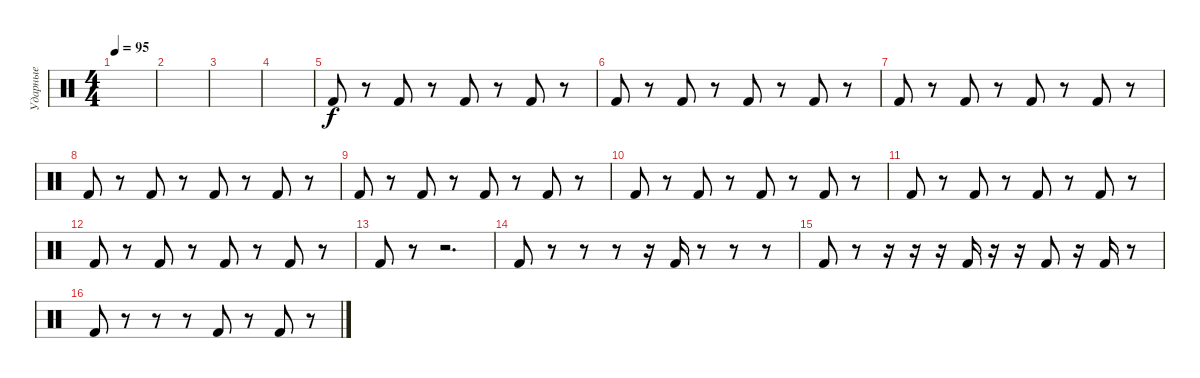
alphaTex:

\track ("Ударные" "Ударные") {instrument percussion}
\staff {score}
\articulation defaults
\ts (4 4)
\tempo 95
\clef neutral
\ks c
|
|
|
|
"Kick (hit) 2".8 r.8 "Kick (hit) 2".8 r.8 "Kick (hit) 2".8 r.8 "Kick (hit) 2".8 r.8 |
"Kick (hit) 2".8 r.8 "Kick (hit) 2".8 r.8 "Kick (hit) 2".8 r.8 "Kick (hit) 2".8 r.8 |
"Kick (hit) 2".8 r.8 "Kick (hit) 2".8 r.8 "Kick (hit) 2".8 r.8 "Kick (hit) 2".8 r.8 |
"Kick (hit) 2".8 r.8 "Kick (hit) 2".8 r.8 "Kick (hit) 2".8 r.8 "Kick (hit) 2".8 r.8 |
"Kick (hit) 2".8 r.8 "Kick (hit) 2".8 r.8 "Kick (hit) 2".8 r.8 "Kick (hit) 2".8 r.8 |
"Kick (hit) 2".8 r.8 "Kick (hit) 2".8 r.8 "Kick (hit) 2".8 r.8 "Kick (hit) 2".8 r.8 |
"Kick (hit) 2".8 r.8 "Kick (hit) 2".8 r.8 "Kick (hit) 2".8 r.8 "Kick (hit) 2".8 r.8 |
"Kick (hit) 2".8 r.8 "Kick (hit) 2".8 r.8 "Kick (hit) 2".8 r.8 "Kick (hit) 2".8 r.8 |
"Kick (hit) 2".8 r.8 r.2{d} |
"Kick (hit) 2".8 r.8 r.8 r.8 r.16 "Kick (hit) 2".16 r.8 r.8 r.8 |
"Kick (hit) 2".8 r.8 r.16 r.16 r.16 "Kick (hit) 2".16 r.16 r.16 "Kick (hit) 2".8 r.16 "Kick (hit) 2".16 r.8 |
"Kick (hit) 2".8 r.8 r.8 r.8 "Kick (hit) 2".8 r.8 "Kick (hit) 2".8 r.8
